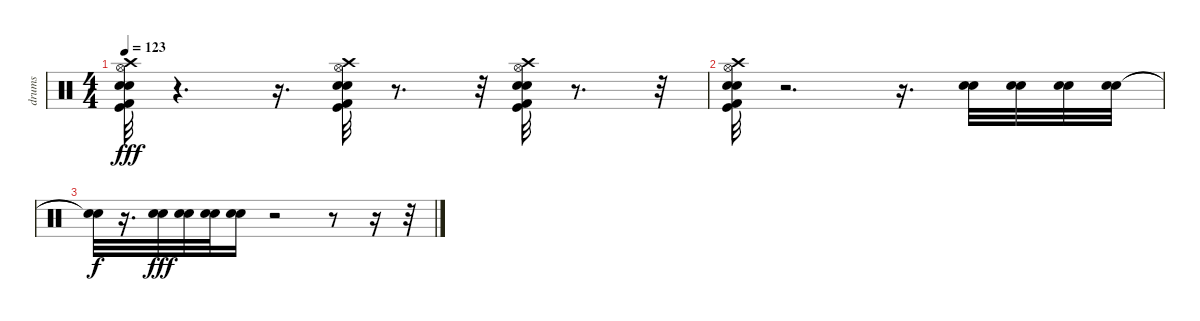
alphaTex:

\track ("drums" "drums") {instrument percussion}
\staff {score}
\articulation defaults
\ts (4 4)
\tempo 123
\clef neutral
\ks c
("Hi-Hat (open)" "Kick (hit)" "Kick (hit) 2" "Electric Snare (hit)" "Snare (hit) 2" "Crash high (hit)").32{dy fff} r.4{d} r.16{d} ("Kick (hit) 2" "Kick (hit)" "Hi-Hat (open)" "Snare (hit) 2" "Electric Snare (hit)" "Crash high (hit)").32 r.8{d} r.32 ("Kick (hit) 2" "Kick (hit)" "Hi-Hat (open)" "Electric Snare (hit)" "Snare (hit) 2" "Crash high (hit)").32 r.8{d} r.32 |
("Crash high (hit)" "Snare (hit) 2" "Electric Snare (hit)" "Hi-Hat (open)" "Kick (hit)" "Kick (hit) 2").32 r.2{d} r.16{d} ("Snare (hit) 2" "Electric Snare (hit)").32 ("Snare (hit) 2" "Electric Snare (hit)").32 ("Snare (hit) 2" "Electric Snare (hit)").32 ("Snare (hit) 2" "Electric Snare (hit)").32 |
("Snare (hit)"{t} "Snare (hit)"{t}).32{dy f} r.16{d} ("Snare (hit) 2" "Electric Snare (hit)").32{dy fff} ("Snare (hit) 2" "Electric Snare (hit)").32 ("Snare (hit) 2" "Electric Snare (hit)").32 ("Snare (hit) 2" "Electric Snare (hit)").16 r.2 r.8 r.16 r.32
